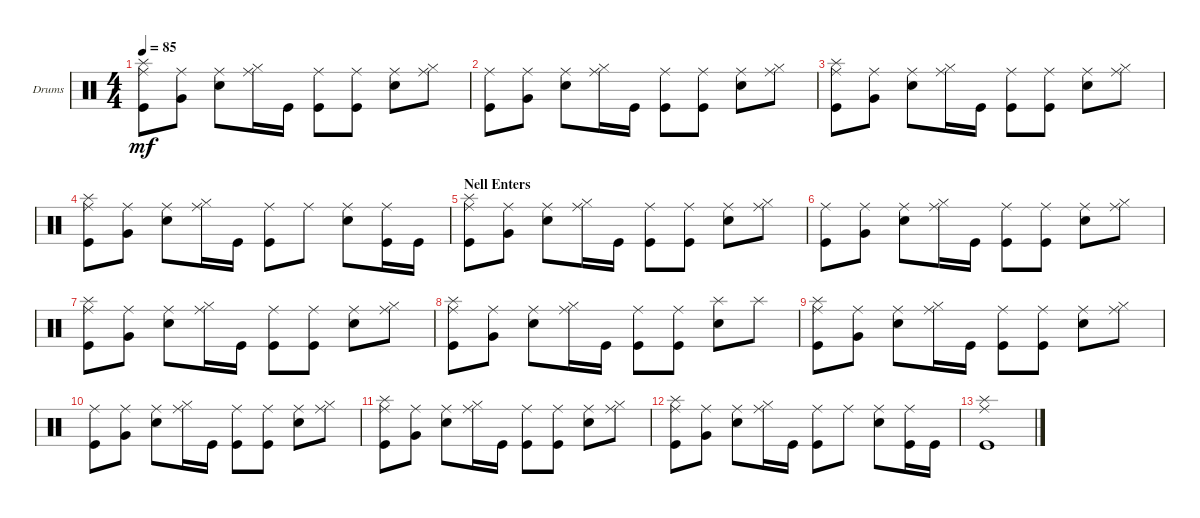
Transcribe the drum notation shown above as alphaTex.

\defaultSystemsLayout 4
\bracketExtendMode groupsimilarinstruments
\firstSystemTrackNameOrientation horizontal
\otherSystemsTrackNameOrientation horizontal
\track ("Drumkit" "Drums") {instrument percussion}
\staff {score}
\articulation defaults
\ts (4 4)
\tempo 85
\clef neutral
\scale
0.333333
\ks c
("Splash (hit)" "Kick (hit)" "Ride (middle)").8{dy mf} ("Very Low Tom (hit)" "Ride (middle)").8 ("Snare (hit) 2" "Ride (middle)").8 ("Hi-Hat (closed)" "Ride (middle)").16 "Kick (hit)".16 ("Kick (hit)" "Ride (middle)").8 ("Kick (hit)" "Ride (middle)").8 ("Snare (hit) 2" "Ride (middle)").8 ("Hi-Hat (closed)" "Ride (middle)").8 |
\scale
0.333333 ("Kick (hit)" "Ride (middle)").8 ("Very Low Tom (hit)" "Ride (middle)").8 ("Snare (hit) 2" "Ride (middle)").8 ("Hi-Hat (closed)" "Ride (middle)").16 "Kick (hit)".16 ("Kick (hit)" "Ride (middle)").8 ("Kick (hit)" "Ride (middle)").8 ("Snare (hit) 2" "Ride (middle)").8 ("Hi-Hat (closed)" "Ride (middle)").8 |
\scale
0.333333 ("Splash (hit)" "Kick (hit)" "Ride (middle)").8 ("Very Low Tom (hit)" "Ride (middle)").8 ("Snare (hit) 2" "Ride (middle)").8 ("Hi-Hat (closed)" "Ride (middle)").16 "Kick (hit)".16 ("Kick (hit)" "Ride (middle)").8 ("Kick (hit)" "Ride (middle)").8 ("Snare (hit) 2" "Ride (middle)").8 ("Hi-Hat (closed)" "Ride (middle)").8 |
\scale
0.333333 ("Splash (hit)" "Kick (hit)" "Ride (middle)").8 ("Very Low Tom (hit)" "Ride (middle)").8 ("Snare (hit) 2" "Ride (middle)").8 ("Hi-Hat (closed)" "Ride (middle)").16 "Kick (hit)".16 ("Kick (hit)" "Ride (middle)").8 "Ride (middle)".8 ("Snare (hit) 2" "Ride (middle)").8 ("Kick (hit)" "Ride (middle)").16 "Kick (hit)".16 |
\section ("" "Nell Enters")
("Splash (hit)" "Kick (hit)" "Ride (middle)").8 ("Very Low Tom (hit)" "Ride (middle)").8 ("Snare (hit) 2" "Ride (middle)").8 ("Hi-Hat (closed)" "Ride (middle)").16 "Kick (hit)".16 ("Kick (hit)" "Ride (middle)").8 ("Kick (hit)" "Ride (middle)").8 ("Snare (hit) 2" "Ride (middle)").8 ("Hi-Hat (closed)" "Ride (middle)").8 |
("Kick (hit)" "Ride (middle)").8 ("Very Low Tom (hit)" "Ride (middle)").8 ("Snare (hit) 2" "Ride (middle)").8 ("Hi-Hat (closed)" "Ride (middle)").16 "Kick (hit)".16 ("Kick (hit)" "Ride (middle)").8 ("Kick (hit)" "Ride (middle)").8 ("Snare (hit) 2" "Ride (middle)").8 ("Hi-Hat (closed)" "Ride (middle)").8 |
("Splash (hit)" "Kick (hit)" "Ride (middle)").8 ("Very Low Tom (hit)" "Ride (middle)").8 ("Snare (hit) 2" "Ride (middle)").8 ("Hi-Hat (closed)" "Ride (middle)").16 "Kick (hit)".16 ("Kick (hit)" "Ride (middle)").8 ("Kick (hit)" "Ride (middle)").8 ("Snare (hit) 2" "Ride (middle)").8 ("Hi-Hat (closed)" "Ride (middle)").8 |
("Splash (hit)" "Kick (hit)" "Ride (middle)").8 ("Very Low Tom (hit)" "Ride (middle)").8 ("Snare (hit) 2" "Ride (middle)").8 ("Hi-Hat (closed)" "Ride (middle)").16 "Kick (hit)".16 ("Kick (hit)" "Ride (middle)").8 ("Kick (hit)" "Ride (middle)").8 ("Snare (hit) 2" "Splash (hit)").8 "Splash (hit)".8 |
("Splash (hit)" "Kick (hit)" "Ride (middle)").8 ("Very Low Tom (hit)" "Ride (middle)").8 ("Snare (hit) 2" "Ride (middle)").8 ("Hi-Hat (closed)" "Ride (middle)").16 "Kick (hit)".16 ("Kick (hit)" "Ride (middle)").8 ("Kick (hit)" "Ride (middle)").8 ("Snare (hit) 2" "Ride (middle)").8 ("Hi-Hat (closed)" "Ride (middle)").8 |
("Kick (hit)" "Ride (middle)").8 ("Very Low Tom (hit)" "Ride (middle)").8 ("Snare (hit) 2" "Ride (middle)").8 ("Hi-Hat (closed)" "Ride (middle)").16 "Kick (hit)".16 ("Kick (hit)" "Ride (middle)").8 ("Kick (hit)" "Ride (middle)").8 ("Snare (hit) 2" "Ride (middle)").8 ("Hi-Hat (closed)" "Ride (middle)").8 |
("Splash (hit)" "Kick (hit)" "Ride (middle)").8 ("Very Low Tom (hit)" "Ride (middle)").8 ("Snare (hit) 2" "Ride (middle)").8 ("Hi-Hat (closed)" "Ride (middle)").16 "Kick (hit)".16 ("Kick (hit)" "Ride (middle)").8 ("Kick (hit)" "Ride (middle)").8 ("Snare (hit) 2" "Ride (middle)").8 ("Hi-Hat (closed)" "Ride (middle)").8 |
("Splash (hit)" "Kick (hit)" "Ride (middle)").8 ("Very Low Tom (hit)" "Ride (middle)").8 ("Snare (hit) 2" "Ride (middle)").8 ("Hi-Hat (closed)" "Ride (middle)").16 "Kick (hit)".16 ("Kick (hit)" "Ride (middle)").8 "Ride (middle)".8 ("Snare (hit) 2" "Ride (middle)").8 ("Kick (hit)" "Ride (middle)").16 "Kick (hit)".16 |
\scale
0.333333 ("Splash (hit)" "Kick (hit)" "Ride (middle)").1 |
\scale
0.333333 |
\scale
0.333333 |
\scale
0.333333
